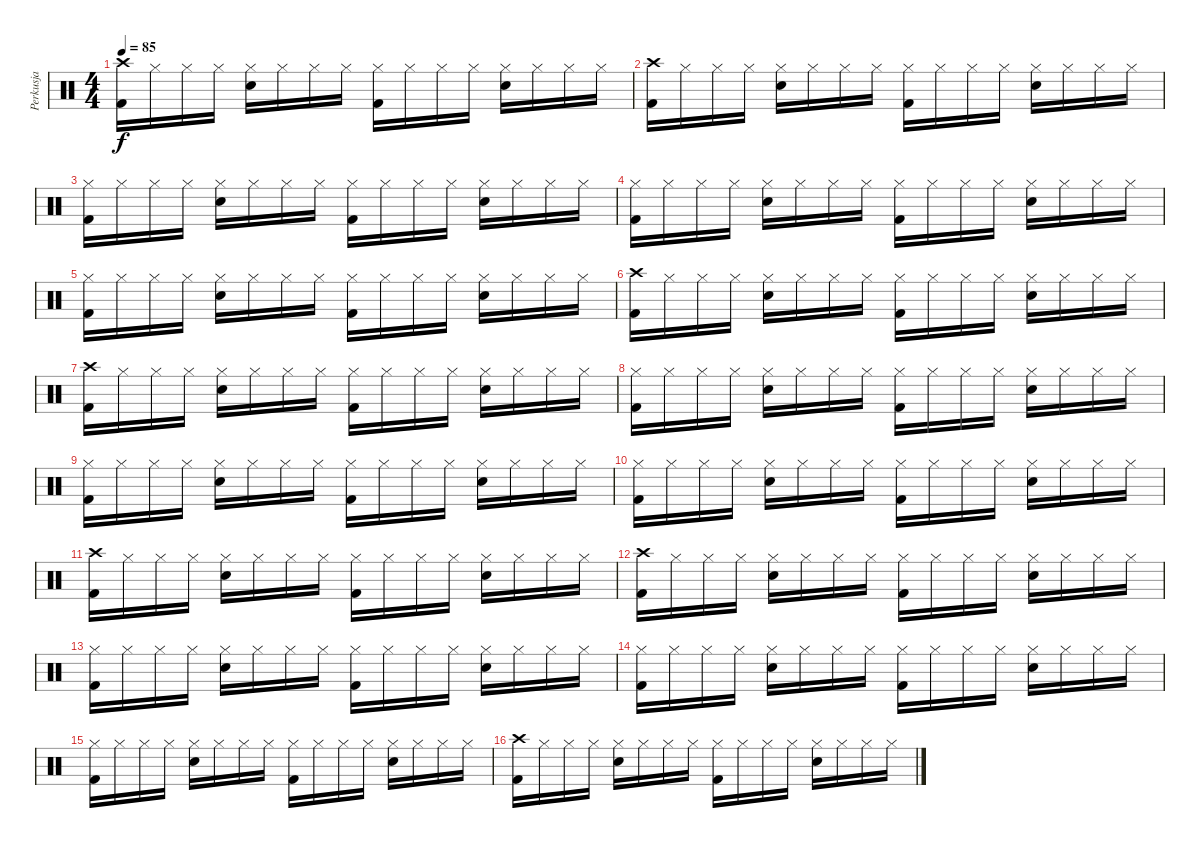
\track ("Perkusja" "Perkusja") {instrument percussion}
\staff {score}
\articulation defaults
\ts (4 4)
\tempo 85
\clef neutral
\ks c
("Crash high (hit)" "Kick (hit) 2").16{dy f} "Hi-Hat (closed)".16 "Hi-Hat (closed)".16 "Hi-Hat (closed)".16 ("Hi-Hat (closed)" "Electric Snare (hit)").16 "Hi-Hat (closed)".16 "Hi-Hat (closed)".16 "Hi-Hat (closed)".16 ("Hi-Hat (closed)" "Kick (hit) 2").16 "Hi-Hat (closed)".16 "Hi-Hat (closed)".16 "Hi-Hat (closed)".16 ("Hi-Hat (closed)" "Electric Snare (hit)").16 "Hi-Hat (closed)".16 "Hi-Hat (closed)".16 "Hi-Hat (closed)".16 |
("Crash high (hit)" "Kick (hit) 2").16 "Hi-Hat (closed)".16 "Hi-Hat (closed)".16 "Hi-Hat (closed)".16 ("Hi-Hat (closed)" "Electric Snare (hit)").16 "Hi-Hat (closed)".16 "Hi-Hat (closed)".16 "Hi-Hat (closed)".16 ("Hi-Hat (closed)" "Kick (hit) 2").16 "Hi-Hat (closed)".16 "Hi-Hat (closed)".16 "Hi-Hat (closed)".16 ("Hi-Hat (closed)" "Electric Snare (hit)").16 "Hi-Hat (closed)".16 "Hi-Hat (closed)".16 "Hi-Hat (closed)".16 |
("Hi-Hat (closed)" "Kick (hit) 2").16 "Hi-Hat (closed)".16 "Hi-Hat (closed)".16 "Hi-Hat (closed)".16 ("Hi-Hat (closed)" "Electric Snare (hit)").16 "Hi-Hat (closed)".16 "Hi-Hat (closed)".16 "Hi-Hat (closed)".16 ("Hi-Hat (closed)" "Kick (hit) 2").16 "Hi-Hat (closed)".16 "Hi-Hat (closed)".16 "Hi-Hat (closed)".16 ("Hi-Hat (closed)" "Electric Snare (hit)").16 "Hi-Hat (closed)".16 "Hi-Hat (closed)".16 "Hi-Hat (closed)".16 |
("Hi-Hat (closed)" "Kick (hit) 2").16 "Hi-Hat (closed)".16 "Hi-Hat (closed)".16 "Hi-Hat (closed)".16 ("Hi-Hat (closed)" "Electric Snare (hit)").16 "Hi-Hat (closed)".16 "Hi-Hat (closed)".16 "Hi-Hat (closed)".16 ("Hi-Hat (closed)" "Kick (hit) 2").16 "Hi-Hat (closed)".16 "Hi-Hat (closed)".16 "Hi-Hat (closed)".16 ("Hi-Hat (closed)" "Electric Snare (hit)").16 "Hi-Hat (closed)".16 "Hi-Hat (closed)".16 "Hi-Hat (closed)".16 |
("Hi-Hat (closed)" "Kick (hit) 2").16 "Hi-Hat (closed)".16 "Hi-Hat (closed)".16 "Hi-Hat (closed)".16 ("Hi-Hat (closed)" "Electric Snare (hit)").16 "Hi-Hat (closed)".16 "Hi-Hat (closed)".16 "Hi-Hat (closed)".16 ("Hi-Hat (closed)" "Kick (hit) 2").16 "Hi-Hat (closed)".16 "Hi-Hat (closed)".16 "Hi-Hat (closed)".16 ("Hi-Hat (closed)" "Electric Snare (hit)").16 "Hi-Hat (closed)".16 "Hi-Hat (closed)".16 "Hi-Hat (closed)".16 |
("Crash high (hit)" "Kick (hit) 2").16 "Hi-Hat (closed)".16 "Hi-Hat (closed)".16 "Hi-Hat (closed)".16 ("Hi-Hat (closed)" "Electric Snare (hit)").16 "Hi-Hat (closed)".16 "Hi-Hat (closed)".16 "Hi-Hat (closed)".16 ("Hi-Hat (closed)" "Kick (hit) 2").16 "Hi-Hat (closed)".16 "Hi-Hat (closed)".16 "Hi-Hat (closed)".16 ("Hi-Hat (closed)" "Electric Snare (hit)").16 "Hi-Hat (closed)".16 "Hi-Hat (closed)".16 "Hi-Hat (closed)".16 |
("Crash high (hit)" "Kick (hit) 2").16 "Hi-Hat (closed)".16 "Hi-Hat (closed)".16 "Hi-Hat (closed)".16 ("Hi-Hat (closed)" "Electric Snare (hit)").16 "Hi-Hat (closed)".16 "Hi-Hat (closed)".16 "Hi-Hat (closed)".16 ("Hi-Hat (closed)" "Kick (hit) 2").16 "Hi-Hat (closed)".16 "Hi-Hat (closed)".16 "Hi-Hat (closed)".16 ("Hi-Hat (closed)" "Electric Snare (hit)").16 "Hi-Hat (closed)".16 "Hi-Hat (closed)".16 "Hi-Hat (closed)".16 |
("Hi-Hat (closed)" "Kick (hit) 2").16 "Hi-Hat (closed)".16 "Hi-Hat (closed)".16 "Hi-Hat (closed)".16 ("Hi-Hat (closed)" "Electric Snare (hit)").16 "Hi-Hat (closed)".16 "Hi-Hat (closed)".16 "Hi-Hat (closed)".16 ("Hi-Hat (closed)" "Kick (hit) 2").16 "Hi-Hat (closed)".16 "Hi-Hat (closed)".16 "Hi-Hat (closed)".16 ("Hi-Hat (closed)" "Electric Snare (hit)").16 "Hi-Hat (closed)".16 "Hi-Hat (closed)".16 "Hi-Hat (closed)".16 |
("Hi-Hat (closed)" "Kick (hit) 2").16 "Hi-Hat (closed)".16 "Hi-Hat (closed)".16 "Hi-Hat (closed)".16 ("Hi-Hat (closed)" "Electric Snare (hit)").16 "Hi-Hat (closed)".16 "Hi-Hat (closed)".16 "Hi-Hat (closed)".16 ("Hi-Hat (closed)" "Kick (hit) 2").16 "Hi-Hat (closed)".16 "Hi-Hat (closed)".16 "Hi-Hat (closed)".16 ("Hi-Hat (closed)" "Electric Snare (hit)").16 "Hi-Hat (closed)".16 "Hi-Hat (closed)".16 "Hi-Hat (closed)".16 |
("Hi-Hat (closed)" "Kick (hit) 2").16 "Hi-Hat (closed)".16 "Hi-Hat (closed)".16 "Hi-Hat (closed)".16 ("Hi-Hat (closed)" "Electric Snare (hit)").16 "Hi-Hat (closed)".16 "Hi-Hat (closed)".16 "Hi-Hat (closed)".16 ("Hi-Hat (closed)" "Kick (hit) 2").16 "Hi-Hat (closed)".16 "Hi-Hat (closed)".16 "Hi-Hat (closed)".16 ("Hi-Hat (closed)" "Electric Snare (hit)").16 "Hi-Hat (closed)".16 "Hi-Hat (closed)".16 "Hi-Hat (closed)".16 |
("Crash high (hit)" "Kick (hit) 2").16 "Hi-Hat (closed)".16 "Hi-Hat (closed)".16 "Hi-Hat (closed)".16 ("Hi-Hat (closed)" "Electric Snare (hit)").16 "Hi-Hat (closed)".16 "Hi-Hat (closed)".16 "Hi-Hat (closed)".16 ("Hi-Hat (closed)" "Kick (hit) 2").16 "Hi-Hat (closed)".16 "Hi-Hat (closed)".16 "Hi-Hat (closed)".16 ("Hi-Hat (closed)" "Electric Snare (hit)").16 "Hi-Hat (closed)".16 "Hi-Hat (closed)".16 "Hi-Hat (closed)".16 |
("Crash high (hit)" "Kick (hit) 2").16 "Hi-Hat (closed)".16 "Hi-Hat (closed)".16 "Hi-Hat (closed)".16 ("Hi-Hat (closed)" "Electric Snare (hit)").16 "Hi-Hat (closed)".16 "Hi-Hat (closed)".16 "Hi-Hat (closed)".16 ("Hi-Hat (closed)" "Kick (hit) 2").16 "Hi-Hat (closed)".16 "Hi-Hat (closed)".16 "Hi-Hat (closed)".16 ("Hi-Hat (closed)" "Electric Snare (hit)").16 "Hi-Hat (closed)".16 "Hi-Hat (closed)".16 "Hi-Hat (closed)".16 |
("Hi-Hat (closed)" "Kick (hit) 2").16 "Hi-Hat (closed)".16 "Hi-Hat (closed)".16 "Hi-Hat (closed)".16 ("Hi-Hat (closed)" "Electric Snare (hit)").16 "Hi-Hat (closed)".16 "Hi-Hat (closed)".16 "Hi-Hat (closed)".16 ("Hi-Hat (closed)" "Kick (hit) 2").16 "Hi-Hat (closed)".16 "Hi-Hat (closed)".16 "Hi-Hat (closed)".16 ("Hi-Hat (closed)" "Electric Snare (hit)").16 "Hi-Hat (closed)".16 "Hi-Hat (closed)".16 "Hi-Hat (closed)".16 |
("Hi-Hat (closed)" "Kick (hit) 2").16 "Hi-Hat (closed)".16 "Hi-Hat (closed)".16 "Hi-Hat (closed)".16 ("Hi-Hat (closed)" "Electric Snare (hit)").16 "Hi-Hat (closed)".16 "Hi-Hat (closed)".16 "Hi-Hat (closed)".16 ("Hi-Hat (closed)" "Kick (hit) 2").16 "Hi-Hat (closed)".16 "Hi-Hat (closed)".16 "Hi-Hat (closed)".16 ("Hi-Hat (closed)" "Electric Snare (hit)").16 "Hi-Hat (closed)".16 "Hi-Hat (closed)".16 "Hi-Hat (closed)".16 |
("Hi-Hat (closed)" "Kick (hit) 2").16 "Hi-Hat (closed)".16 "Hi-Hat (closed)".16 "Hi-Hat (closed)".16 ("Hi-Hat (closed)" "Electric Snare (hit)").16 "Hi-Hat (closed)".16 "Hi-Hat (closed)".16 "Hi-Hat (closed)".16 ("Hi-Hat (closed)" "Kick (hit) 2").16 "Hi-Hat (closed)".16 "Hi-Hat (closed)".16 "Hi-Hat (closed)".16 ("Hi-Hat (closed)" "Electric Snare (hit)").16 "Hi-Hat (closed)".16 "Hi-Hat (closed)".16 "Hi-Hat (closed)".16 |
("Crash high (hit)" "Kick (hit) 2").16 "Hi-Hat (closed)".16 "Hi-Hat (closed)".16 "Hi-Hat (closed)".16 ("Hi-Hat (closed)" "Electric Snare (hit)").16 "Hi-Hat (closed)".16 "Hi-Hat (closed)".16 "Hi-Hat (closed)".16 ("Hi-Hat (closed)" "Kick (hit) 2").16 "Hi-Hat (closed)".16 "Hi-Hat (closed)".16 "Hi-Hat (closed)".16 ("Hi-Hat (closed)" "Electric Snare (hit)").16 "Hi-Hat (closed)".16 "Hi-Hat (closed)".16 "Hi-Hat (closed)".16
